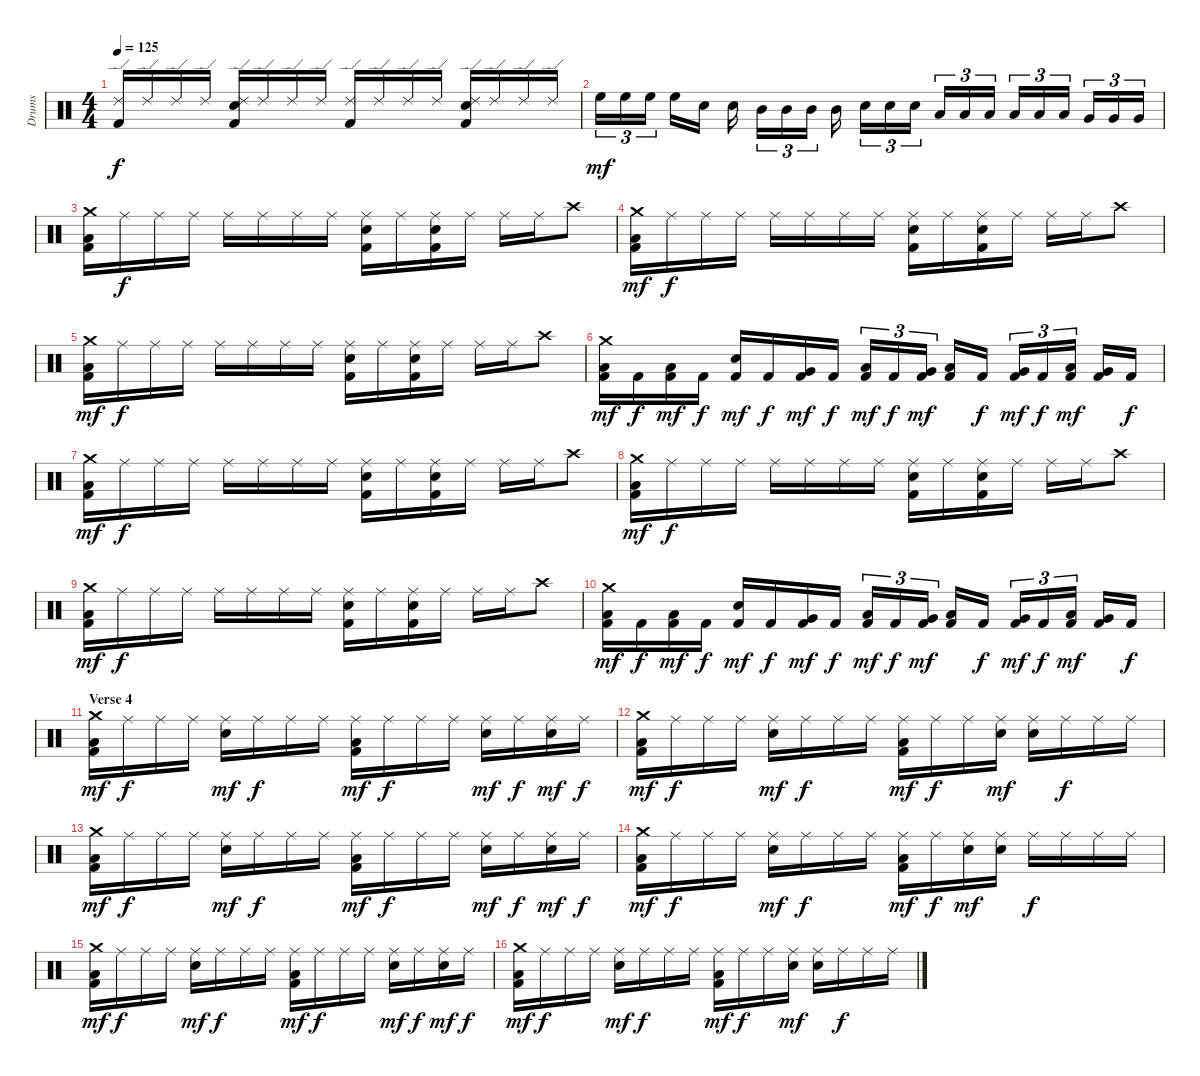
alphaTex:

\track ("Drums" "Drums") {instrument percussion}
\staff {score}
\articulation defaults
\ts (4 4)
\tempo 125
\clef neutral
\ks c
("Kick (hit) 2" "Ride (edge) 2").16{dy f} "Ride (edge) 2".16 "Ride (edge) 2".16 "Ride (edge) 2".16 ("Kick (hit) 2" "Electric Snare (hit)" "Ride (edge) 2").16 "Ride (edge) 2".16 "Ride (edge) 2".16 "Ride (edge) 2".16 ("Kick (hit) 2" "Ride (edge) 2").16 "Ride (edge) 2".16 "Ride (edge) 2".16 "Ride (edge) 2".16 ("Kick (hit) 2" "Electric Snare (hit)" "Ride (edge) 2").16 "Ride (edge) 2".16 "Ride (edge) 2".16 "Ride (edge) 2".16 |
"High Floor Tom (hit)".16{tu (3 2) dy mf} "High Floor Tom (hit)".16{tu (3 2)} "High Floor Tom (hit)".16{tu (3 2)} "High Floor Tom (hit)".16 "Electric Snare (hit)".16 "Electric Snare (hit)".16 "Mid Tom (hit)".16{tu (3 2)} "Mid Tom (hit)".16{tu (3 2)} "Mid Tom (hit)".16{tu (3 2)} "Mid Tom (hit)".16 "Electric Snare (hit)".16{tu (3 2)} "Electric Snare (hit)".16{tu (3 2)} "Electric Snare (hit)".16{tu (3 2)} "Low Tom (hit)".16{tu (3 2)} "Low Tom (hit)".16{tu (3 2)} "Low Tom (hit)".16{tu (3 2)} "Low Floor Tom (hit)".16{tu (3 2)} "Low Floor Tom (hit)".16{tu (3 2)} "Low Floor Tom (hit)".16{tu (3 2)} "Very Low Tom (hit)".16{tu (3 2)} "Very Low Tom (hit)".16{tu (3 2)} "Very Low Tom (hit)".16{tu (3 2)} |
("Kick (hit) 2" "Low Floor Tom (hit)" "Crash medium (hit)").16 "Ride (middle)".16{dy f} "Ride (middle)".16 "Ride (middle)".16 "Ride (middle)".16 "Ride (middle)".16 "Ride (middle)".16 "Ride (middle)".16 ("Kick (hit) 2" "Electric Snare (hit)" "Ride (middle)").16 "Ride (middle)".16 ("Kick (hit) 2" "Electric Snare (hit)" "Ride (middle)").16 "Ride (middle)".16 "Ride (middle)".16 "Ride (middle)".16 "Crash high (hit)".8 |
("Kick (hit) 2" "Low Floor Tom (hit)" "Crash medium (hit)").16{dy mf} "Ride (middle)".16{dy f} "Ride (middle)".16 "Ride (middle)".16 "Ride (middle)".16 "Ride (middle)".16 "Ride (middle)".16 "Ride (middle)".16 ("Kick (hit) 2" "Electric Snare (hit)" "Ride (middle)").16 "Ride (middle)".16 ("Kick (hit) 2" "Electric Snare (hit)" "Ride (middle)").16 "Ride (middle)".16 "Ride (middle)".16 "Ride (middle)".16 "Crash high (hit)".8 |
("Kick (hit) 2" "Low Floor Tom (hit)" "Crash medium (hit)").16{dy mf} "Ride (middle)".16{dy f} "Ride (middle)".16 "Ride (middle)".16 "Ride (middle)".16 "Ride (middle)".16 "Ride (middle)".16 "Ride (middle)".16 ("Kick (hit) 2" "Electric Snare (hit)" "Ride (middle)").16 "Ride (middle)".16 ("Kick (hit) 2" "Electric Snare (hit)" "Ride (middle)").16 "Ride (middle)".16 "Ride (middle)".16 "Ride (middle)".16 "Crash high (hit)".8 |
("Kick (hit) 2" "Low Floor Tom (hit)" "Crash medium (hit)").16{dy mf} "Kick (hit) 2".16{dy f} ("Kick (hit) 2" "Low Floor Tom (hit)").16{dy mf} "Kick (hit) 2".16{dy f} ("Kick (hit) 2" "Electric Snare (hit)").16{dy mf} "Kick (hit) 2".16{dy f} ("Kick (hit) 2" "Very Low Tom (hit)").16{dy mf} "Kick (hit) 2".16{dy f} ("Kick (hit) 2" "Low Floor Tom (hit)").16{tu (3 2) dy mf} "Kick (hit) 2".16{tu (3 2) dy f} ("Kick (hit) 2" "Very Low Tom (hit)").16{tu (3 2) dy mf} ("Kick (hit) 2" "Low Floor Tom (hit)").16 "Kick (hit) 2".16{dy f} ("Kick (hit) 2" "Very Low Tom (hit)").16{tu (3 2) dy mf} "Kick (hit) 2".16{tu (3 2) dy f} ("Kick (hit) 2" "Low Floor Tom (hit)").16{tu (3 2) dy mf} ("Kick (hit) 2" "Very Low Tom (hit)").16 "Kick (hit) 2".16{dy f} |
("Kick (hit) 2" "Low Floor Tom (hit)" "Crash medium (hit)").16{dy mf} "Ride (middle)".16{dy f} "Ride (middle)".16 "Ride (middle)".16 "Ride (middle)".16 "Ride (middle)".16 "Ride (middle)".16 "Ride (middle)".16 ("Kick (hit) 2" "Electric Snare (hit)" "Ride (middle)").16 "Ride (middle)".16 ("Kick (hit) 2" "Electric Snare (hit)" "Ride (middle)").16 "Ride (middle)".16 "Ride (middle)".16 "Ride (middle)".16 "Crash high (hit)".8 |
("Kick (hit) 2" "Low Floor Tom (hit)" "Crash medium (hit)").16{dy mf} "Ride (middle)".16{dy f} "Ride (middle)".16 "Ride (middle)".16 "Ride (middle)".16 "Ride (middle)".16 "Ride (middle)".16 "Ride (middle)".16 ("Kick (hit) 2" "Electric Snare (hit)" "Ride (middle)").16 "Ride (middle)".16 ("Kick (hit) 2" "Electric Snare (hit)" "Ride (middle)").16 "Ride (middle)".16 "Ride (middle)".16 "Ride (middle)".16 "Crash high (hit)".8 |
("Kick (hit) 2" "Low Floor Tom (hit)" "Crash medium (hit)").16{dy mf} "Ride (middle)".16{dy f} "Ride (middle)".16 "Ride (middle)".16 "Ride (middle)".16 "Ride (middle)".16 "Ride (middle)".16 "Ride (middle)".16 ("Kick (hit) 2" "Electric Snare (hit)" "Ride (middle)").16 "Ride (middle)".16 ("Kick (hit) 2" "Electric Snare (hit)" "Ride (middle)").16 "Ride (middle)".16 "Ride (middle)".16 "Ride (middle)".16 "Crash high (hit)".8 |
("Kick (hit) 2" "Low Floor Tom (hit)" "Crash medium (hit)").16{dy mf} "Kick (hit) 2".16{dy f} ("Kick (hit) 2" "Low Floor Tom (hit)").16{dy mf} "Kick (hit) 2".16{dy f} ("Kick (hit) 2" "Electric Snare (hit)").16{dy mf} "Kick (hit) 2".16{dy f} ("Kick (hit) 2" "Very Low Tom (hit)").16{dy mf} "Kick (hit) 2".16{dy f} ("Kick (hit) 2" "Low Floor Tom (hit)").16{tu (3 2) dy mf} "Kick (hit) 2".16{tu (3 2) dy f} ("Kick (hit) 2" "Very Low Tom (hit)").16{tu (3 2) dy mf} ("Kick (hit) 2" "Low Floor Tom (hit)").16 "Kick (hit) 2".16{dy f} ("Kick (hit) 2" "Very Low Tom (hit)").16{tu (3 2) dy mf} "Kick (hit) 2".16{tu (3 2) dy f} ("Kick (hit) 2" "Low Floor Tom (hit)").16{tu (3 2) dy mf} ("Kick (hit) 2" "Very Low Tom (hit)").16 "Kick (hit) 2".16{dy f} |
\section ("" "Verse 4")
("Kick (hit) 2" "Low Floor Tom (hit)" "Crash medium (hit)").16{dy mf} "Ride (middle)".16{dy f} "Ride (middle)".16 "Ride (middle)".16 ("Electric Snare (hit)" "Ride (middle)").16{dy mf} "Ride (middle)".16{dy f} "Ride (middle)".16 "Ride (middle)".16 ("Kick (hit) 2" "Low Floor Tom (hit)" "Ride (middle)").16{dy mf} "Ride (middle)".16{dy f} "Ride (middle)".16 "Ride (middle)".16 ("Electric Snare (hit)" "Ride (middle)").16{dy mf} "Ride (middle)".16{dy f} ("Electric Snare (hit)" "Ride (middle)").16{dy mf} "Ride (middle)".16{dy f} |
("Kick (hit) 2" "Low Floor Tom (hit)" "Crash medium (hit)").16{dy mf} "Ride (middle)".16{dy f} "Ride (middle)".16 "Ride (middle)".16 ("Electric Snare (hit)" "Ride (middle)").16{dy mf} "Ride (middle)".16{dy f} "Ride (middle)".16 "Ride (middle)".16 ("Kick (hit) 2" "Low Floor Tom (hit)" "Ride (middle)").16{dy mf} "Ride (middle)".16{dy f} "Ride (middle)".16 ("Electric Snare (hit)" "Ride (middle)").16{dy mf} ("Electric Snare (hit)" "Ride (middle)").16 "Ride (middle)".16{dy f} "Ride (middle)".16 "Ride (middle)".16 |
("Kick (hit) 2" "Low Floor Tom (hit)" "Crash medium (hit)").16{dy mf} "Ride (middle)".16{dy f} "Ride (middle)".16 "Ride (middle)".16 ("Electric Snare (hit)" "Ride (middle)").16{dy mf} "Ride (middle)".16{dy f} "Ride (middle)".16 "Ride (middle)".16 ("Kick (hit) 2" "Low Floor Tom (hit)" "Ride (middle)").16{dy mf} "Ride (middle)".16{dy f} "Ride (middle)".16 "Ride (middle)".16 ("Electric Snare (hit)" "Ride (middle)").16{dy mf} "Ride (middle)".16{dy f} ("Electric Snare (hit)" "Ride (middle)").16{dy mf} "Ride (middle)".16{dy f} |
("Kick (hit) 2" "Low Floor Tom (hit)" "Crash medium (hit)").16{dy mf} "Ride (middle)".16{dy f} "Ride (middle)".16 "Ride (middle)".16 ("Electric Snare (hit)" "Ride (middle)").16{dy mf} "Ride (middle)".16{dy f} "Ride (middle)".16 "Ride (middle)".16 ("Kick (hit) 2" "Low Floor Tom (hit)" "Ride (middle)").16{dy mf} "Ride (middle)".16{dy f} ("Electric Snare (hit)" "Ride (middle)").16{dy mf} ("Electric Snare (hit)" "Ride (middle)").16 "Ride (middle)".16{dy f} "Ride (middle)".16 "Ride (middle)".16 "Ride (middle)".16 |
("Kick (hit) 2" "Low Floor Tom (hit)" "Crash medium (hit)").16{dy mf} "Ride (middle)".16{dy f} "Ride (middle)".16 "Ride (middle)".16 ("Electric Snare (hit)" "Ride (middle)").16{dy mf} "Ride (middle)".16{dy f} "Ride (middle)".16 "Ride (middle)".16 ("Kick (hit) 2" "Low Floor Tom (hit)" "Ride (middle)").16{dy mf} "Ride (middle)".16{dy f} "Ride (middle)".16 "Ride (middle)".16 ("Electric Snare (hit)" "Ride (middle)").16{dy mf} "Ride (middle)".16{dy f} ("Electric Snare (hit)" "Ride (middle)").16{dy mf} "Ride (middle)".16{dy f} |
("Kick (hit) 2" "Low Floor Tom (hit)" "Crash medium (hit)").16{dy mf} "Ride (middle)".16{dy f} "Ride (middle)".16 "Ride (middle)".16 ("Electric Snare (hit)" "Ride (middle)").16{dy mf} "Ride (middle)".16{dy f} "Ride (middle)".16 "Ride (middle)".16 ("Kick (hit) 2" "Low Floor Tom (hit)" "Ride (middle)").16{dy mf} "Ride (middle)".16{dy f} "Ride (middle)".16 ("Electric Snare (hit)" "Ride (middle)").16{dy mf} ("Electric Snare (hit)" "Ride (middle)").16 "Ride (middle)".16{dy f} "Ride (middle)".16 "Ride (middle)".16
